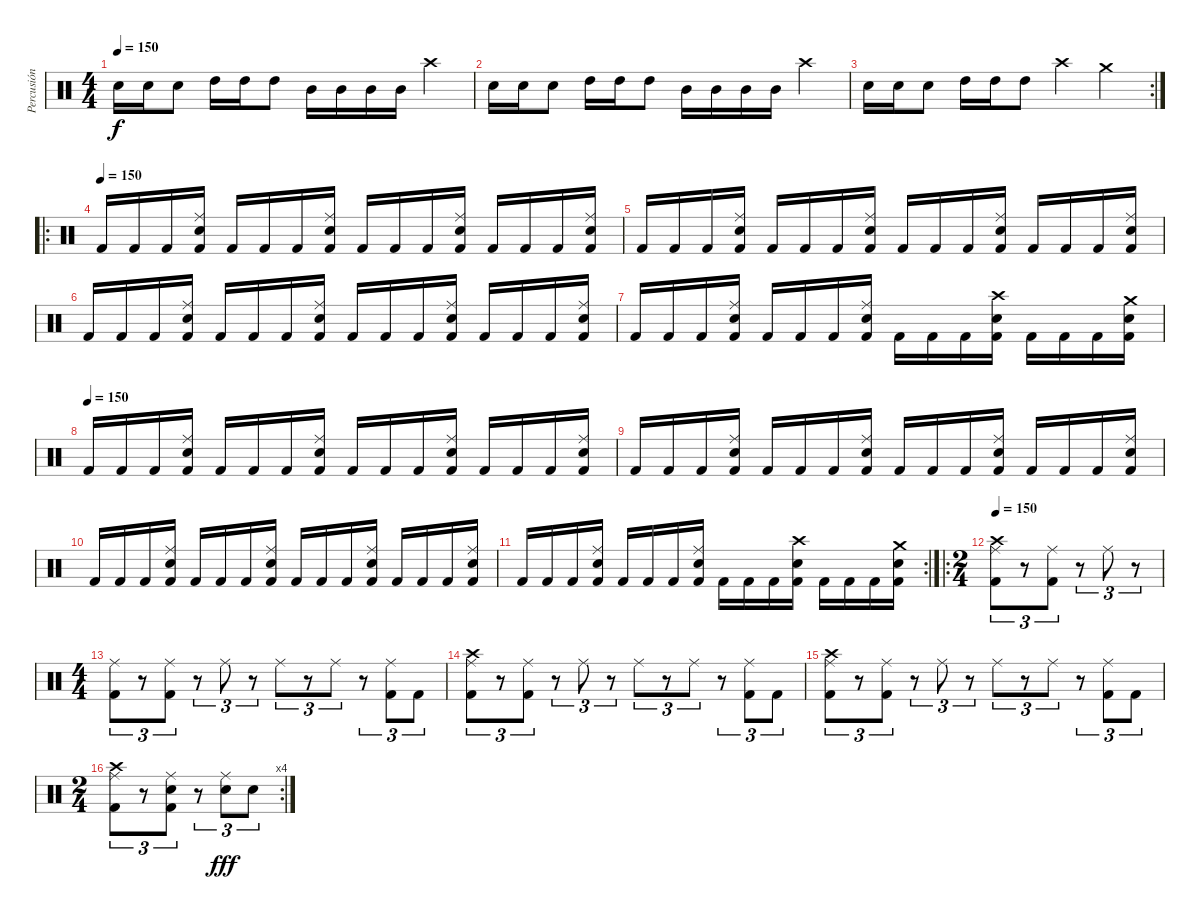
\track ("Percusión" "Percusión") {instrument percussion}
\staff {score}
\articulation defaults
\ts (4 4)
\tempo 150
\clef neutral
\ks c "Snare (hit) 2".16{dy f} "Snare (hit) 2".16 "Snare (hit) 2".8 "High Tom (hit)".16 "High Tom (hit)".16 "High Tom (hit)".8 "Mid Tom (hit)".16 "Mid Tom (hit)".16 "Mid Tom (hit)".16 "Mid Tom (hit)".16 "Crash high (hit)".4
|
"Snare (hit) 2".16 "Snare (hit) 2".16 "Snare (hit) 2".8 "High Tom (hit)".16 "High Tom (hit)".16 "High Tom (hit)".8 "Mid Tom (hit)".16 "Mid Tom (hit)".16 "Mid Tom (hit)".16 "Mid Tom (hit)".16 "Crash high (hit)".4 |
\rc 2 "Snare (hit) 2".16 "Snare (hit) 2".16 "Snare (hit) 2".8 "High Tom (hit)".16 "High Tom (hit)".16 "High Tom (hit)".8 "Crash high (hit)".4 "Crash medium (hit)".4
|
\ro
\tempo (150)
"Kick (hit) 2".16 "Kick (hit) 2".16 "Kick (hit) 2".16 ("Ride (middle)" "Electric Snare (hit)" "Kick (hit) 2").16 "Kick (hit) 2".16 "Kick (hit) 2".16 "Kick (hit) 2".16 ("Ride (middle)" "Electric Snare (hit)" "Kick (hit) 2").16 "Kick (hit) 2".16 "Kick (hit) 2".16 "Kick (hit) 2".16 ("Ride (middle)" "Electric Snare (hit)" "Kick (hit) 2").16 "Kick (hit) 2".16 "Kick (hit) 2".16 "Kick (hit) 2".16 ("Ride (middle)" "Electric Snare (hit)" "Kick (hit) 2").16 |
"Kick (hit) 2".16 "Kick (hit) 2".16 "Kick (hit) 2".16 ("Ride (middle)" "Electric Snare (hit)" "Kick (hit) 2").16 "Kick (hit) 2".16 "Kick (hit) 2".16 "Kick (hit) 2".16 ("Ride (middle)" "Electric Snare (hit)" "Kick (hit) 2").16 "Kick (hit) 2".16 "Kick (hit) 2".16 "Kick (hit) 2".16 ("Ride (middle)" "Electric Snare (hit)" "Kick (hit) 2").16 "Kick (hit) 2".16 "Kick (hit) 2".16 "Kick (hit) 2".16 ("Ride (middle)" "Electric Snare (hit)" "Kick (hit) 2").16 |
"Kick (hit) 2".16 "Kick (hit) 2".16 "Kick (hit) 2".16 ("Ride (middle)" "Electric Snare (hit)" "Kick (hit) 2").16 "Kick (hit) 2".16 "Kick (hit) 2".16 "Kick (hit) 2".16 ("Ride (middle)" "Electric Snare (hit)" "Kick (hit) 2").16 "Kick (hit) 2".16 "Kick (hit) 2".16 "Kick (hit) 2".16 ("Ride (middle)" "Electric Snare (hit)" "Kick (hit) 2").16 "Kick (hit) 2".16 "Kick (hit) 2".16 "Kick (hit) 2".16 ("Ride (middle)" "Electric Snare (hit)" "Kick (hit) 2").16 |
"Kick (hit) 2".16 "Kick (hit) 2".16 "Kick (hit) 2".16 ("Ride (middle)" "Electric Snare (hit)" "Kick (hit) 2").16 "Kick (hit) 2".16 "Kick (hit) 2".16 "Kick (hit) 2".16 ("Ride (middle)" "Electric Snare (hit)" "Kick (hit) 2").16 "Kick (hit) 2".16 "Kick (hit) 2".16 "Kick (hit) 2".16 ("Crash high (hit)" "Electric Snare (hit)" "Kick (hit) 2").16 "Kick (hit) 2".16 "Kick (hit) 2".16 "Kick (hit) 2".16 ("Crash medium (hit)" "Electric Snare (hit)" "Kick (hit) 2").16 |
\tempo (150)
"Kick (hit) 2".16 "Kick (hit) 2".16 "Kick (hit) 2".16 ("Ride (middle)" "Electric Snare (hit)" "Kick (hit) 2").16 "Kick (hit) 2".16 "Kick (hit) 2".16 "Kick (hit) 2".16 ("Ride (middle)" "Electric Snare (hit)" "Kick (hit) 2").16 "Kick (hit) 2".16 "Kick (hit) 2".16 "Kick (hit) 2".16 ("Ride (middle)" "Electric Snare (hit)" "Kick (hit) 2").16 "Kick (hit) 2".16 "Kick (hit) 2".16 "Kick (hit) 2".16 ("Ride (middle)" "Electric Snare (hit)" "Kick (hit) 2").16 |
"Kick (hit) 2".16 "Kick (hit) 2".16 "Kick (hit) 2".16 ("Ride (middle)" "Electric Snare (hit)" "Kick (hit) 2").16 "Kick (hit) 2".16 "Kick (hit) 2".16 "Kick (hit) 2".16 ("Ride (middle)" "Electric Snare (hit)" "Kick (hit) 2").16 "Kick (hit) 2".16 "Kick (hit) 2".16 "Kick (hit) 2".16 ("Ride (middle)" "Electric Snare (hit)" "Kick (hit) 2").16 "Kick (hit) 2".16 "Kick (hit) 2".16 "Kick (hit) 2".16 ("Ride (middle)" "Electric Snare (hit)" "Kick (hit) 2").16 |
"Kick (hit) 2".16 "Kick (hit) 2".16 "Kick (hit) 2".16 ("Ride (middle)" "Electric Snare (hit)" "Kick (hit) 2").16 "Kick (hit) 2".16 "Kick (hit) 2".16 "Kick (hit) 2".16 ("Ride (middle)" "Electric Snare (hit)" "Kick (hit) 2").16 "Kick (hit) 2".16 "Kick (hit) 2".16 "Kick (hit) 2".16 ("Ride (middle)" "Electric Snare (hit)" "Kick (hit) 2").16 "Kick (hit) 2".16 "Kick (hit) 2".16 "Kick (hit) 2".16 ("Ride (middle)" "Electric Snare (hit)" "Kick (hit) 2").16 |
\rc 2 "Kick (hit) 2".16 "Kick (hit) 2".16 "Kick (hit) 2".16
("Ride (middle)" "Electric Snare (hit)" "Kick (hit) 2").16 "Kick (hit) 2".16 "Kick (hit) 2".16 "Kick (hit) 2".16 ("Ride (middle)" "Electric Snare (hit)" "Kick (hit) 2").16 "Kick (hit) 2".16 "Kick (hit) 2".16 "Kick (hit) 2".16 ("Crash high (hit)" "Electric Snare (hit)" "Kick (hit) 2").16 "Kick (hit) 2".16 "Kick (hit) 2".16 "Kick (hit) 2".16 ("Crash medium (hit)" "Electric Snare (hit)" "Kick (hit) 2").16 |
\ro
\ts (2 4)
\tempo 150
("Crash high (hit)" "Ride (middle)" "Kick (hit) 2").8{tu (3 2)} r.8{tu (3 2)} ("Ride (middle)" "Kick (hit) 2").8{tu (3 2)} r.8{tu (3 2)} "Ride (middle)".8{tu (3 2)} r.8{tu (3 2)} |
\ts (4 4)
("Ride (middle)" "Kick (hit) 2").8{tu (3 2)} r.8{tu (3 2)} ("Ride (middle)" "Kick (hit) 2").8{tu (3 2)} r.8{tu (3 2)} "Ride (middle)".8{tu (3 2)} r.8{tu (3 2)} "Ride (middle)".8{tu (3 2)} r.8{tu (3 2)} "Ride (middle)".8{tu (3 2)} r.8{tu (3 2)} ("Ride (middle)" "Kick (hit) 2").8{tu (3 2)} "Kick (hit) 2".8{tu (3 2)} |
("Crash high (hit)" "Ride (middle)" "Kick (hit) 2").8{tu (3 2)} r.8{tu (3 2)} ("Ride (middle)" "Kick (hit) 2").8{tu (3 2)} r.8{tu (3 2)} "Ride (middle)".8{tu (3 2)} r.8{tu (3 2)} "Ride (middle)".8{tu (3 2)} r.8{tu (3 2)} "Ride (middle)".8{tu (3 2)} r.8{tu (3 2)} ("Ride (middle)" "Kick (hit) 2").8{tu (3 2)} "Kick (hit) 2".8{tu (3 2)} |
("Crash high (hit)" "Ride (middle)" "Kick (hit) 2").8{tu (3 2)} r.8{tu (3 2)} ("Ride (middle)" "Kick (hit) 2").8{tu (3 2)} r.8{tu (3 2)} "Ride (middle)".8{tu (3 2)} r.8{tu (3 2)} "Ride (middle)".8{tu (3 2)} r.8{tu (3 2)} "Ride (middle)".8{tu (3 2)} r.8{tu (3 2)} ("Ride (middle)" "Kick (hit) 2").8{tu (3 2)} "Kick (hit) 2".8{tu (3 2)} |
\rc 4
\ts (2 4)
("Crash high (hit)" "Ride (middle)" "Kick (hit) 2").8{tu (3 2)} r.8{tu (3 2)} ("Ride (middle)" "Electric Snare (hit)" "Kick (hit) 2").8{tu (3 2)} r.8{tu (3 2)} ("Ride (middle)" "Snare (hit) 2").8{tu (3 2) dy fff} "Snare (hit) 2".8{tu (3 2)}
